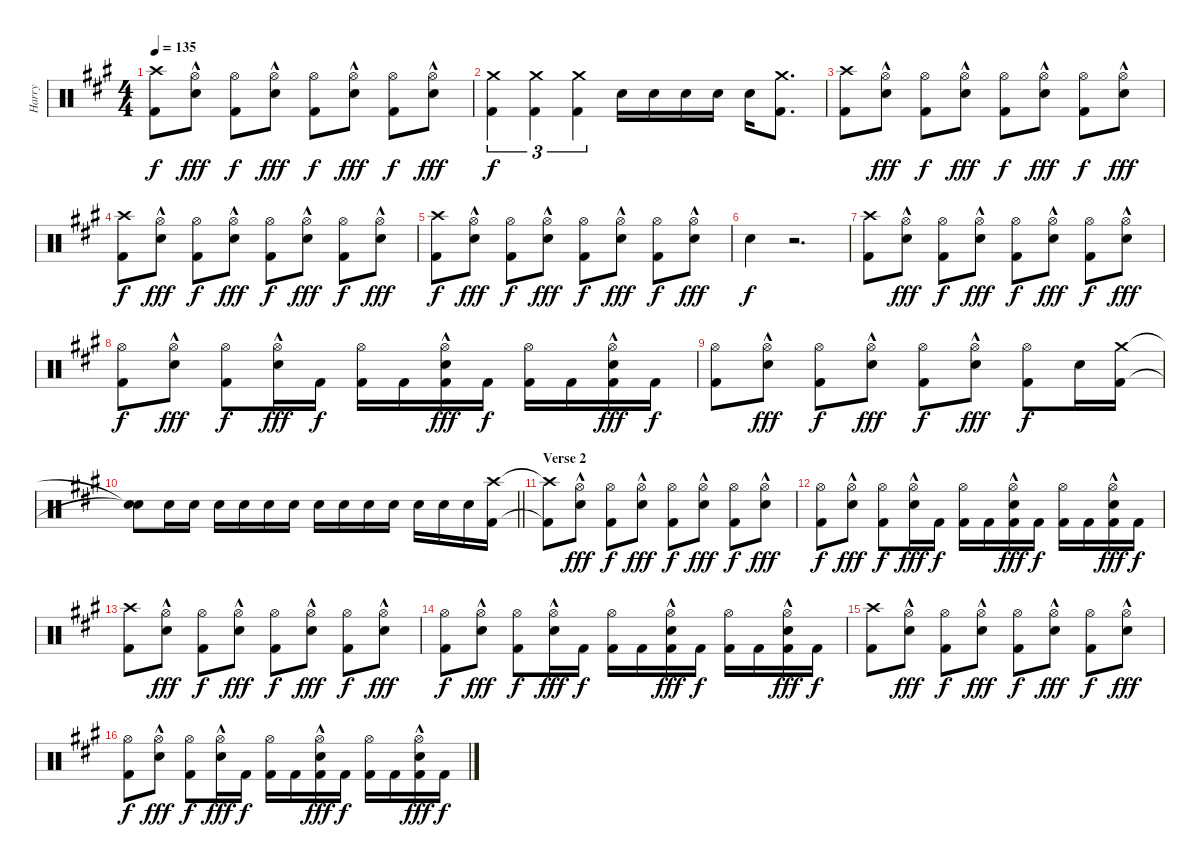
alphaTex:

\track ("Harry" "Harry") {instrument percussion}
\staff {score}
\articulation defaults
\ts (4 4)
\tempo 135
\clef neutral
\ks a
("Crash high (hit)" "Kick (hit) 2").8{dy f} ("Hi-Hat (open)"{hac} "Snare (hit) 2"{hac}).8{dy fff} ("Hi-Hat (open)" "Kick (hit) 2").8{dy f} ("Hi-Hat (open)"{hac} "Snare (hit) 2"{hac}).8{dy fff} ("Hi-Hat (open)" "Kick (hit) 2").8{dy f} ("Hi-Hat (open)"{hac} "Snare (hit) 2"{hac}).8{dy fff} ("Hi-Hat (open)" "Kick (hit) 2").8{dy f} ("Hi-Hat (open)"{hac} "Snare (hit) 2"{hac}).8{dy fff} |
("Crash medium (hit)" "Kick (hit) 2").4{tu (3 2) dy f} ("Crash medium (hit)" "Kick (hit) 2").4{tu (3 2)} ("Crash medium (hit)" "Kick (hit) 2").4{tu (3 2)} "Snare (hit) 2".16 "Snare (hit) 2".16 "Snare (hit) 2".16 "Snare (hit) 2".16 "Snare (hit) 2".16 ("Crash medium (hit)" "Kick (hit) 2").8{d} |
("Crash high (hit)" "Kick (hit) 2").8 ("Hi-Hat (open)"{hac} "Snare (hit) 2"{hac}).8{dy fff} ("Hi-Hat (open)" "Kick (hit) 2").8{dy f} ("Hi-Hat (open)"{hac} "Snare (hit) 2"{hac}).8{dy fff} ("Hi-Hat (open)" "Kick (hit) 2").8{dy f} ("Hi-Hat (open)"{hac} "Snare (hit) 2"{hac}).8{dy fff} ("Hi-Hat (open)" "Kick (hit) 2").8{dy f} ("Hi-Hat (open)"{hac} "Snare (hit) 2"{hac}).8{dy fff} |
("Crash high (hit)" "Kick (hit) 2").8{dy f} ("Hi-Hat (open)"{hac} "Snare (hit) 2"{hac}).8{dy fff} ("Hi-Hat (open)" "Kick (hit) 2").8{dy f} ("Hi-Hat (open)"{hac} "Snare (hit) 2"{hac}).8{dy fff} ("Hi-Hat (open)" "Kick (hit) 2").8{dy f} ("Hi-Hat (open)"{hac} "Snare (hit) 2"{hac}).8{dy fff} ("Hi-Hat (open)" "Kick (hit) 2").8{dy f} ("Hi-Hat (open)"{hac} "Snare (hit) 2"{hac}).8{dy fff} |
("Crash high (hit)" "Kick (hit) 2").8{dy f} ("Hi-Hat (open)"{hac} "Snare (hit) 2"{hac}).8{dy fff} ("Hi-Hat (open)" "Kick (hit) 2").8{dy f} ("Hi-Hat (open)"{hac} "Snare (hit) 2"{hac}).8{dy fff} ("Hi-Hat (open)" "Kick (hit) 2").8{dy f} ("Hi-Hat (open)"{hac} "Snare (hit) 2"{hac}).8{dy fff} ("Hi-Hat (open)" "Kick (hit) 2").8{dy f} ("Hi-Hat (open)"{hac} "Snare (hit) 2"{hac}).8{dy fff} |
"Snare (hit) 2".4{dy f} r.2{d} |
("Crash high (hit)" "Kick (hit) 2").8 ("Hi-Hat (open)"{hac} "Snare (hit) 2"{hac}).8{dy fff} ("Hi-Hat (open)" "Kick (hit) 2").8{dy f} ("Hi-Hat (open)"{hac} "Snare (hit) 2"{hac}).8{dy fff} ("Hi-Hat (open)" "Kick (hit) 2").8{dy f} ("Hi-Hat (open)"{hac} "Snare (hit) 2"{hac}).8{dy fff} ("Hi-Hat (open)" "Kick (hit) 2").8{dy f} ("Hi-Hat (open)"{hac} "Snare (hit) 2"{hac}).8{dy fff} |
("Hi-Hat (open)" "Kick (hit) 2").8{dy f} ("Hi-Hat (open)"{hac} "Snare (hit) 2"{hac}).8{dy fff} ("Hi-Hat (open)" "Kick (hit) 2").8{dy f} ("Hi-Hat (open)"{hac} "Snare (hit) 2"{hac}).16{dy fff} "Kick (hit) 2".16{dy f} ("Hi-Hat (open)" "Kick (hit) 2").16 "Kick (hit) 2".16 ("Snare (hit) 2"{hac} "Hi-Hat (open)"{hac} "Kick (hit) 2"{hac}).16{dy fff} "Kick (hit) 2".16{dy f} ("Hi-Hat (open)" "Kick (hit) 2").16 "Kick (hit) 2".16 ("Snare (hit) 2"{hac} "Hi-Hat (open)"{hac} "Kick (hit) 2"{hac}).16{dy fff} "Kick (hit) 2".16{dy f} |
("Hi-Hat (open)" "Kick (hit) 2").8 ("Hi-Hat (open)"{hac} "Snare (hit) 2"{hac}).8{dy fff} ("Hi-Hat (open)" "Kick (hit) 2").8{dy f} ("Hi-Hat (open)"{hac} "Snare (hit) 2"{hac}).8{dy fff} ("Hi-Hat (open)" "Kick (hit) 2").8{dy f} ("Hi-Hat (open)"{hac} "Snare (hit) 2"{hac}).8{dy fff} ("Hi-Hat (open)" "Kick (hit) 2").8{dy f} "Snare (hit) 2".16 ("Crash medium (hit)" "Kick (hit) 2").16 |
\barLineRight lightlight
("Snare (hit)"{t} "Snare (hit)"{t}).8 "Snare (hit) 2".16 "Snare (hit) 2".16 "Snare (hit) 2".16 "Snare (hit) 2".16 "Snare (hit) 2".16 "Snare (hit) 2".16 "Snare (hit) 2".16 "Snare (hit) 2".16 "Snare (hit) 2".16 "Snare (hit) 2".16 "Snare (hit) 2".16 "Snare (hit) 2".16 "Snare (hit) 2".16 ("Crash high (hit)" "Kick (hit) 2").16 |
\section ("" "Verse 2")
("Crash high (hit)"{t} "Kick (hit) 2"{t}).8 ("Hi-Hat (open)"{hac} "Snare (hit) 2"{hac}).8{dy fff} ("Hi-Hat (open)" "Kick (hit) 2").8{dy f} ("Hi-Hat (open)"{hac} "Snare (hit) 2"{hac}).8{dy fff} ("Hi-Hat (open)" "Kick (hit) 2").8{dy f} ("Hi-Hat (open)"{hac} "Snare (hit) 2"{hac}).8{dy fff} ("Hi-Hat (open)" "Kick (hit) 2").8{dy f} ("Hi-Hat (open)"{hac} "Snare (hit) 2"{hac}).8{dy fff} |
("Hi-Hat (open)" "Kick (hit) 2").8{dy f} ("Hi-Hat (open)"{hac} "Snare (hit) 2"{hac}).8{dy fff} ("Hi-Hat (open)" "Kick (hit) 2").8{dy f} ("Hi-Hat (open)"{hac} "Snare (hit) 2"{hac}).16{dy fff} "Kick (hit) 2".16{dy f} ("Hi-Hat (open)" "Kick (hit) 2").16 "Kick (hit) 2".16 ("Snare (hit) 2"{hac} "Hi-Hat (open)"{hac} "Kick (hit) 2"{hac}).16{dy fff} "Kick (hit) 2".16{dy f} ("Hi-Hat (open)" "Kick (hit) 2").16 "Kick (hit) 2".16 ("Snare (hit) 2"{hac} "Hi-Hat (open)"{hac} "Kick (hit) 2"{hac}).16{dy fff} "Kick (hit) 2".16{dy f} |
("Crash high (hit)" "Kick (hit) 2").8 ("Hi-Hat (open)"{hac} "Snare (hit) 2"{hac}).8{dy fff} ("Hi-Hat (open)" "Kick (hit) 2").8{dy f} ("Hi-Hat (open)"{hac} "Snare (hit) 2"{hac}).8{dy fff} ("Hi-Hat (open)" "Kick (hit) 2").8{dy f} ("Hi-Hat (open)"{hac} "Snare (hit) 2"{hac}).8{dy fff} ("Hi-Hat (open)" "Kick (hit) 2").8{dy f} ("Hi-Hat (open)"{hac} "Snare (hit) 2"{hac}).8{dy fff} |
("Hi-Hat (open)" "Kick (hit) 2").8{dy f} ("Hi-Hat (open)"{hac} "Snare (hit) 2"{hac}).8{dy fff} ("Hi-Hat (open)" "Kick (hit) 2").8{dy f} ("Hi-Hat (open)"{hac} "Snare (hit) 2"{hac}).16{dy fff} "Kick (hit) 2".16{dy f} ("Hi-Hat (open)" "Kick (hit) 2").16 "Kick (hit) 2".16 ("Snare (hit) 2"{hac} "Hi-Hat (open)"{hac} "Kick (hit) 2"{hac}).16{dy fff} "Kick (hit) 2".16{dy f} ("Hi-Hat (open)" "Kick (hit) 2").16 "Kick (hit) 2".16 ("Snare (hit) 2"{hac} "Hi-Hat (open)"{hac} "Kick (hit) 2"{hac}).16{dy fff} "Kick (hit) 2".16{dy f} |
("Crash high (hit)" "Kick (hit) 2").8 ("Hi-Hat (open)"{hac} "Snare (hit) 2"{hac}).8{dy fff} ("Hi-Hat (open)" "Kick (hit) 2").8{dy f} ("Hi-Hat (open)"{hac} "Snare (hit) 2"{hac}).8{dy fff} ("Hi-Hat (open)" "Kick (hit) 2").8{dy f} ("Hi-Hat (open)"{hac} "Snare (hit) 2"{hac}).8{dy fff} ("Hi-Hat (open)" "Kick (hit) 2").8{dy f} ("Hi-Hat (open)"{hac} "Snare (hit) 2"{hac}).8{dy fff} |
("Hi-Hat (open)" "Kick (hit) 2").8{dy f} ("Hi-Hat (open)"{hac} "Snare (hit) 2"{hac}).8{dy fff} ("Hi-Hat (open)" "Kick (hit) 2").8{dy f} ("Hi-Hat (open)"{hac} "Snare (hit) 2"{hac}).16{dy fff} "Kick (hit) 2".16{dy f} ("Hi-Hat (open)" "Kick (hit) 2").16 "Kick (hit) 2".16 ("Snare (hit) 2"{hac} "Hi-Hat (open)"{hac} "Kick (hit) 2"{hac}).16{dy fff} "Kick (hit) 2".16{dy f} ("Hi-Hat (open)" "Kick (hit) 2").16 "Kick (hit) 2".16 ("Snare (hit) 2"{hac} "Hi-Hat (open)"{hac} "Kick (hit) 2"{hac}).16{dy fff} "Kick (hit) 2".16{dy f}
